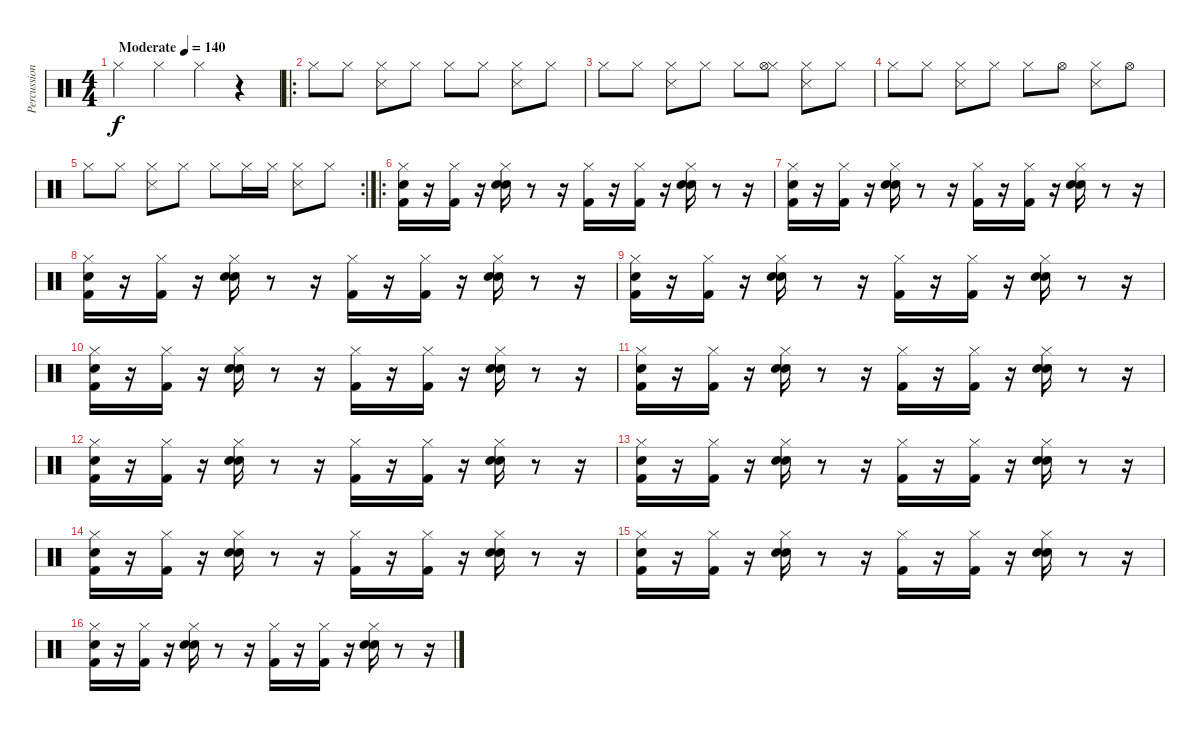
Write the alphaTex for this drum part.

\track ("Percussion" "Percussion") {instrument percussion}
\staff {score}
\articulation defaults
\ts (4 4)
\tempo (140 "Moderate")
\clef neutral
\ks c "Hi-Hat (closed)".4{dy f} "Hi-Hat (closed)".4 "Hi-Hat (closed)".4
r.4 |
\ro "Hi-Hat (closed)".8 "Hi-Hat (closed)".8
("Hi-Hat (closed)" "Snare (side stick) 3").8 "Hi-Hat (closed)".8 "Hi-Hat (closed)".8 "Hi-Hat (closed)".8 ("Hi-Hat (closed)" "Snare (side stick) 3").8 "Hi-Hat (closed)".8 |
"Hi-Hat (closed)".8 "Hi-Hat (closed)".8 ("Hi-Hat (closed)" "Snare (side stick) 3").8 "Hi-Hat (closed)".8 "Hi-Hat (closed)".8 ("Hi-Hat (closed)" "Hi-Hat (open)").8 ("Hi-Hat (closed)" "Snare (side stick) 3").8 "Hi-Hat (closed)".8 |
"Hi-Hat (closed)".8 "Hi-Hat (closed)".8 ("Hi-Hat (closed)" "Snare (side stick) 3").8 "Hi-Hat (closed)".8 "Hi-Hat (closed)".8 "Hi-Hat (open)".8 ("Hi-Hat (closed)" "Snare (side stick) 3").8 "Hi-Hat (open)".8 |
\rc 2 "Hi-Hat (closed)".8 "Hi-Hat (closed)".8
("Hi-Hat (closed)" "Snare (side stick) 3").8 "Hi-Hat (closed)".8 "Hi-Hat (closed)".8 "Hi-Hat (closed)".16 "Hi-Hat (closed)".16 ("Hi-Hat (closed)" "Snare (side stick) 3").8 "Hi-Hat (closed)".8 |
\ro
("Snare (hit)" "Kick (hit) 2" "Hi-Hat (closed)").16 r.16 ("Kick (hit) 2" "Hi-Hat (closed)").16 r.16 ("Hand Clap (hit)" "Hi-Hat (closed)" "Snare (hit) 2").16 r.8 r.16 ("Hi-Hat (closed)" "Kick (hit) 2").16 r.16 ("Hi-Hat (closed)" "Kick (hit) 2").16 r.16 ("Snare (hit) 2" "Hand Clap (hit)" "Hi-Hat (closed)").16 r.8 r.16 |
("Snare (hit)" "Kick (hit) 2" "Hi-Hat (closed)").16 r.16 ("Kick (hit) 2" "Hi-Hat (closed)").16 r.16 ("Hand Clap (hit)" "Hi-Hat (closed)" "Snare (hit) 2").16 r.8 r.16 ("Hi-Hat (closed)" "Kick (hit) 2").16 r.16 ("Hi-Hat (closed)" "Kick (hit) 2").16 r.16 ("Snare (hit) 2" "Hand Clap (hit)" "Hi-Hat (closed)").16 r.8 r.16 |
("Snare (hit)" "Kick (hit) 2" "Hi-Hat (closed)").16 r.16 ("Kick (hit) 2" "Hi-Hat (closed)").16 r.16 ("Hand Clap (hit)" "Hi-Hat (closed)" "Snare (hit) 2").16 r.8 r.16 ("Hi-Hat (closed)" "Kick (hit) 2").16 r.16 ("Hi-Hat (closed)" "Kick (hit) 2").16 r.16 ("Snare (hit) 2" "Hand Clap (hit)" "Hi-Hat (closed)").16 r.8 r.16 |
("Snare (hit)" "Kick (hit) 2" "Hi-Hat (closed)").16 r.16 ("Kick (hit) 2" "Hi-Hat (closed)").16 r.16 ("Hand Clap (hit)" "Hi-Hat (closed)" "Snare (hit) 2").16 r.8 r.16 ("Hi-Hat (closed)" "Kick (hit) 2").16 r.16 ("Hi-Hat (closed)" "Kick (hit) 2").16 r.16 ("Snare (hit) 2" "Hand Clap (hit)" "Hi-Hat (closed)").16 r.8 r.16 |
("Snare (hit)" "Kick (hit) 2" "Hi-Hat (closed)").16 r.16 ("Kick (hit) 2" "Hi-Hat (closed)").16 r.16 ("Hand Clap (hit)" "Hi-Hat (closed)" "Snare (hit) 2").16 r.8 r.16 ("Hi-Hat (closed)" "Kick (hit) 2").16 r.16 ("Hi-Hat (closed)" "Kick (hit) 2").16 r.16 ("Snare (hit) 2" "Hand Clap (hit)" "Hi-Hat (closed)").16 r.8 r.16 |
("Snare (hit)" "Kick (hit) 2" "Hi-Hat (closed)").16 r.16 ("Kick (hit) 2" "Hi-Hat (closed)").16 r.16 ("Hand Clap (hit)" "Hi-Hat (closed)" "Snare (hit) 2").16 r.8 r.16 ("Hi-Hat (closed)" "Kick (hit) 2").16 r.16 ("Hi-Hat (closed)" "Kick (hit) 2").16 r.16 ("Snare (hit) 2" "Hand Clap (hit)" "Hi-Hat (closed)").16 r.8 r.16 |
("Snare (hit)" "Kick (hit) 2" "Hi-Hat (closed)").16 r.16 ("Kick (hit) 2" "Hi-Hat (closed)").16 r.16 ("Hand Clap (hit)" "Hi-Hat (closed)" "Snare (hit) 2").16 r.8 r.16 ("Hi-Hat (closed)" "Kick (hit) 2").16 r.16 ("Hi-Hat (closed)" "Kick (hit) 2").16 r.16 ("Snare (hit) 2" "Hand Clap (hit)" "Hi-Hat (closed)").16 r.8 r.16 |
("Snare (hit)" "Kick (hit) 2" "Hi-Hat (closed)").16 r.16 ("Kick (hit) 2" "Hi-Hat (closed)").16 r.16 ("Hand Clap (hit)" "Hi-Hat (closed)" "Snare (hit) 2").16 r.8 r.16 ("Hi-Hat (closed)" "Kick (hit) 2").16 r.16 ("Hi-Hat (closed)" "Kick (hit) 2").16 r.16 ("Snare (hit) 2" "Hand Clap (hit)" "Hi-Hat (closed)").16 r.8 r.16 |
("Snare (hit)" "Kick (hit) 2" "Hi-Hat (closed)").16 r.16 ("Kick (hit) 2" "Hi-Hat (closed)").16 r.16 ("Hand Clap (hit)" "Hi-Hat (closed)" "Snare (hit) 2").16 r.8 r.16 ("Hi-Hat (closed)" "Kick (hit) 2").16 r.16 ("Hi-Hat (closed)" "Kick (hit) 2").16 r.16 ("Snare (hit) 2" "Hand Clap (hit)" "Hi-Hat (closed)").16 r.8 r.16 |
("Snare (hit)" "Kick (hit) 2" "Hi-Hat (closed)").16 r.16 ("Kick (hit) 2" "Hi-Hat (closed)").16 r.16 ("Hand Clap (hit)" "Hi-Hat (closed)" "Snare (hit) 2").16 r.8 r.16 ("Hi-Hat (closed)" "Kick (hit) 2").16 r.16 ("Hi-Hat (closed)" "Kick (hit) 2").16 r.16 ("Snare (hit) 2" "Hand Clap (hit)" "Hi-Hat (closed)").16 r.8 r.16 |
("Snare (hit)" "Kick (hit) 2" "Hi-Hat (closed)").16 r.16 ("Kick (hit) 2" "Hi-Hat (closed)").16 r.16 ("Hand Clap (hit)" "Hi-Hat (closed)" "Snare (hit) 2").16 r.8 r.16 ("Hi-Hat (closed)" "Kick (hit) 2").16 r.16 ("Hi-Hat (closed)" "Kick (hit) 2").16 r.16 ("Snare (hit) 2" "Hand Clap (hit)" "Hi-Hat (closed)").16 r.8 r.16
